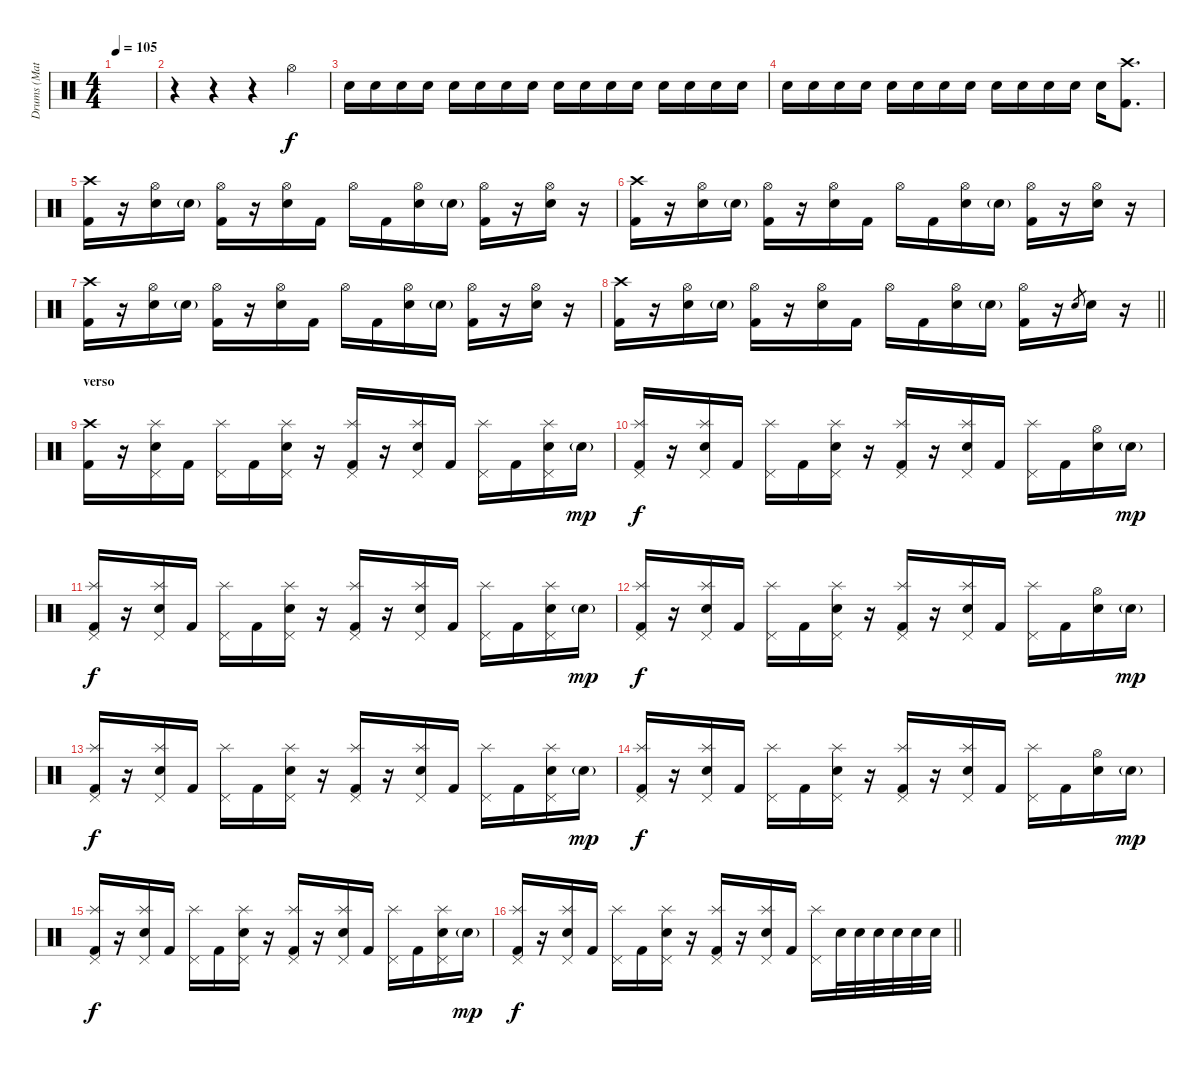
\track ("Drums (Matt Sorum)" "Drums (Mat") {instrument percussion}
\staff {score}
\articulation defaults
\ts (4 4)
\tempo 105
\clef neutral
\ks c
|
r.4 r.4 r.4 "Hi-Hat (open)".4 |
"Electric Snare (hit)".16 "Electric Snare (hit)".16 "Electric Snare (hit)".16 "Electric Snare (hit)".16 "Electric Snare (hit)".16 "Electric Snare (hit)".16 "Electric Snare (hit)".16 "Electric Snare (hit)".16 "Electric Snare (hit)".16 "Electric Snare (hit)".16 "Electric Snare (hit)".16 "Electric Snare (hit)".16 "Electric Snare (hit)".16 "Electric Snare (hit)".16 "Electric Snare (hit)".16 "Electric Snare (hit)".16 |
"Electric Snare (hit)".16 "Electric Snare (hit)".16 "Electric Snare (hit)".16 "Electric Snare (hit)".16 "Electric Snare (hit)".16 "Electric Snare (hit)".16 "Electric Snare (hit)".16 "Electric Snare (hit)".16 "Electric Snare (hit)".16 "Electric Snare (hit)".16 "Electric Snare (hit)".16 "Electric Snare (hit)".16 "Electric Snare (hit)".16 ("Crash high (hit)" "Kick (hit) 2").8{d} |
("Crash high (hit)" "Kick (hit) 2").16 r.16 ("Hi-Hat (open)" "Electric Snare (hit)").16 "Electric Snare (hit)"{g}.16 ("Hi-Hat (open)" "Kick (hit) 2").16 r.16 ("Hi-Hat (open)" "Electric Snare (hit)").16 "Kick (hit) 2".16 "Hi-Hat (open)".16 "Kick (hit) 2".16 ("Hi-Hat (open)" "Electric Snare (hit)").16 "Electric Snare (hit)"{g}.16 ("Hi-Hat (open)" "Kick (hit) 2").16 r.16 ("Hi-Hat (open)" "Electric Snare (hit)").16 r.16 |
("Crash high (hit)" "Kick (hit) 2").16 r.16 ("Hi-Hat (open)" "Electric Snare (hit)").16 "Electric Snare (hit)"{g}.16 ("Hi-Hat (open)" "Kick (hit) 2").16 r.16 ("Hi-Hat (open)" "Electric Snare (hit)").16 "Kick (hit) 2".16 "Hi-Hat (open)".16 "Kick (hit) 2".16 ("Hi-Hat (open)" "Electric Snare (hit)").16 "Electric Snare (hit)"{g}.16 ("Hi-Hat (open)" "Kick (hit) 2").16 r.16 ("Hi-Hat (open)" "Electric Snare (hit)").16 r.16 |
("Crash high (hit)" "Kick (hit) 2").16 r.16 ("Hi-Hat (open)" "Electric Snare (hit)").16 "Electric Snare (hit)"{g}.16 ("Hi-Hat (open)" "Kick (hit) 2").16 r.16 ("Hi-Hat (open)" "Electric Snare (hit)").16 "Kick (hit) 2".16 "Hi-Hat (open)".16 "Kick (hit) 2".16 ("Hi-Hat (open)" "Electric Snare (hit)").16 "Electric Snare (hit)"{g}.16 ("Hi-Hat (open)" "Kick (hit) 2").16 r.16 ("Hi-Hat (open)" "Electric Snare (hit)").16 r.16 |
\barLineRight lightlight
("Crash high (hit)" "Kick (hit) 2").16 r.16 ("Hi-Hat (open)" "Electric Snare (hit)").16 "Electric Snare (hit)"{g}.16 ("Hi-Hat (open)" "Kick (hit) 2").16 r.16 ("Hi-Hat (open)" "Electric Snare (hit)").16 "Kick (hit) 2".16 "Hi-Hat (open)".16 "Kick (hit) 2".16 ("Hi-Hat (open)" "Electric Snare (hit)").16 "Electric Snare (hit)"{g}.16 ("Hi-Hat (open)" "Kick (hit) 2").16 r.16 "Electric Snare (hit)".8{gr} "Electric Snare (hit)".16 r.16 |
\section ("" "verso")
("Crash high (hit)" "Kick (hit) 2").16 r.16 ("Splash (hit)" "Pedal Hi-Hat (hit)" "Electric Snare (hit)").16 "Kick (hit) 2".16 ("Splash (hit)" "Pedal Hi-Hat (hit)").16 "Kick (hit) 2".16 ("Splash (hit)" "Pedal Hi-Hat (hit)" "Electric Snare (hit)").16 r.16 ("Splash (hit)" "Pedal Hi-Hat (hit)" "Kick (hit) 2").16 r.16 ("Splash (hit)" "Pedal Hi-Hat (hit)" "Electric Snare (hit)").16 "Kick (hit) 2".16 ("Splash (hit)" "Pedal Hi-Hat (hit)").16 "Kick (hit) 2".16 ("Splash (hit)" "Pedal Hi-Hat (hit)" "Electric Snare (hit)").16 "Electric Snare (hit)"{g}.16{dy mp} |
("Splash (hit)" "Pedal Hi-Hat (hit)" "Kick (hit) 2").16{dy f} r.16 ("Splash (hit)" "Pedal Hi-Hat (hit)" "Electric Snare (hit)").16 "Kick (hit) 2".16 ("Splash (hit)" "Pedal Hi-Hat (hit)").16 "Kick (hit) 2".16 ("Splash (hit)" "Pedal Hi-Hat (hit)" "Electric Snare (hit)").16 r.16 ("Splash (hit)" "Pedal Hi-Hat (hit)" "Kick (hit) 2").16 r.16 ("Splash (hit)" "Pedal Hi-Hat (hit)" "Electric Snare (hit)").16 "Kick (hit) 2".16 ("Splash (hit)" "Pedal Hi-Hat (hit)").16 "Kick (hit) 2".16 ("Hi-Hat (open)" "Electric Snare (hit)").16 "Electric Snare (hit)"{g}.16{dy mp} |
("Splash (hit)" "Pedal Hi-Hat (hit)" "Kick (hit) 2").16{dy f} r.16 ("Splash (hit)" "Pedal Hi-Hat (hit)" "Electric Snare (hit)").16 "Kick (hit) 2".16 ("Splash (hit)" "Pedal Hi-Hat (hit)").16 "Kick (hit) 2".16 ("Splash (hit)" "Pedal Hi-Hat (hit)" "Electric Snare (hit)").16 r.16 ("Splash (hit)" "Pedal Hi-Hat (hit)" "Kick (hit) 2").16 r.16 ("Splash (hit)" "Pedal Hi-Hat (hit)" "Electric Snare (hit)").16 "Kick (hit) 2".16 ("Splash (hit)" "Pedal Hi-Hat (hit)").16 "Kick (hit) 2".16 ("Splash (hit)" "Pedal Hi-Hat (hit)" "Electric Snare (hit)").16 "Electric Snare (hit)"{g}.16{dy mp} |
("Splash (hit)" "Pedal Hi-Hat (hit)" "Kick (hit) 2").16{dy f} r.16 ("Splash (hit)" "Pedal Hi-Hat (hit)" "Electric Snare (hit)").16 "Kick (hit) 2".16 ("Splash (hit)" "Pedal Hi-Hat (hit)").16 "Kick (hit) 2".16 ("Splash (hit)" "Pedal Hi-Hat (hit)" "Electric Snare (hit)").16 r.16 ("Splash (hit)" "Pedal Hi-Hat (hit)" "Kick (hit) 2").16 r.16 ("Splash (hit)" "Pedal Hi-Hat (hit)" "Electric Snare (hit)").16 "Kick (hit) 2".16 ("Splash (hit)" "Pedal Hi-Hat (hit)").16 "Kick (hit) 2".16 ("Hi-Hat (open)" "Electric Snare (hit)").16 "Electric Snare (hit)"{g}.16{dy mp} |
("Splash (hit)" "Pedal Hi-Hat (hit)" "Kick (hit) 2").16{dy f} r.16 ("Splash (hit)" "Pedal Hi-Hat (hit)" "Electric Snare (hit)").16 "Kick (hit) 2".16 ("Splash (hit)" "Pedal Hi-Hat (hit)").16 "Kick (hit) 2".16 ("Splash (hit)" "Pedal Hi-Hat (hit)" "Electric Snare (hit)").16 r.16 ("Splash (hit)" "Pedal Hi-Hat (hit)" "Kick (hit) 2").16 r.16 ("Splash (hit)" "Pedal Hi-Hat (hit)" "Electric Snare (hit)").16 "Kick (hit) 2".16 ("Splash (hit)" "Pedal Hi-Hat (hit)").16 "Kick (hit) 2".16 ("Splash (hit)" "Pedal Hi-Hat (hit)" "Electric Snare (hit)").16 "Electric Snare (hit)"{g}.16{dy mp} |
("Splash (hit)" "Pedal Hi-Hat (hit)" "Kick (hit) 2").16{dy f} r.16 ("Splash (hit)" "Pedal Hi-Hat (hit)" "Electric Snare (hit)").16 "Kick (hit) 2".16 ("Splash (hit)" "Pedal Hi-Hat (hit)").16 "Kick (hit) 2".16 ("Splash (hit)" "Pedal Hi-Hat (hit)" "Electric Snare (hit)").16 r.16 ("Splash (hit)" "Pedal Hi-Hat (hit)" "Kick (hit) 2").16 r.16 ("Splash (hit)" "Pedal Hi-Hat (hit)" "Electric Snare (hit)").16 "Kick (hit) 2".16 ("Splash (hit)" "Pedal Hi-Hat (hit)").16 "Kick (hit) 2".16 ("Hi-Hat (open)" "Electric Snare (hit)").16 "Electric Snare (hit)"{g}.16{dy mp} |
("Splash (hit)" "Pedal Hi-Hat (hit)" "Kick (hit) 2").16{dy f} r.16 ("Splash (hit)" "Pedal Hi-Hat (hit)" "Electric Snare (hit)").16 "Kick (hit) 2".16 ("Splash (hit)" "Pedal Hi-Hat (hit)").16 "Kick (hit) 2".16 ("Splash (hit)" "Pedal Hi-Hat (hit)" "Electric Snare (hit)").16 r.16 ("Splash (hit)" "Pedal Hi-Hat (hit)" "Kick (hit) 2").16 r.16 ("Splash (hit)" "Pedal Hi-Hat (hit)" "Electric Snare (hit)").16 "Kick (hit) 2".16 ("Splash (hit)" "Pedal Hi-Hat (hit)").16 "Kick (hit) 2".16 ("Splash (hit)" "Pedal Hi-Hat (hit)" "Electric Snare (hit)").16 "Electric Snare (hit)"{g}.16{dy mp} |
\barLineRight lightlight
("Splash (hit)" "Pedal Hi-Hat (hit)" "Kick (hit) 2").16{dy f} r.16 ("Splash (hit)" "Pedal Hi-Hat (hit)" "Electric Snare (hit)").16 "Kick (hit) 2".16 ("Splash (hit)" "Pedal Hi-Hat (hit)").16 "Kick (hit) 2".16 ("Splash (hit)" "Pedal Hi-Hat (hit)" "Electric Snare (hit)").16 r.16 ("Splash (hit)" "Pedal Hi-Hat (hit)" "Kick (hit) 2").16 r.16 ("Splash (hit)" "Pedal Hi-Hat (hit)" "Electric Snare (hit)").16 "Kick (hit) 2".16 ("Splash (hit)" "Pedal Hi-Hat (hit)").16 "Electric Snare (hit)".32 "Electric Snare (hit)".32 "Electric Snare (hit)".32 "Electric Snare (hit)".32 "Electric Snare (hit)".32 "Electric Snare (hit)".32
